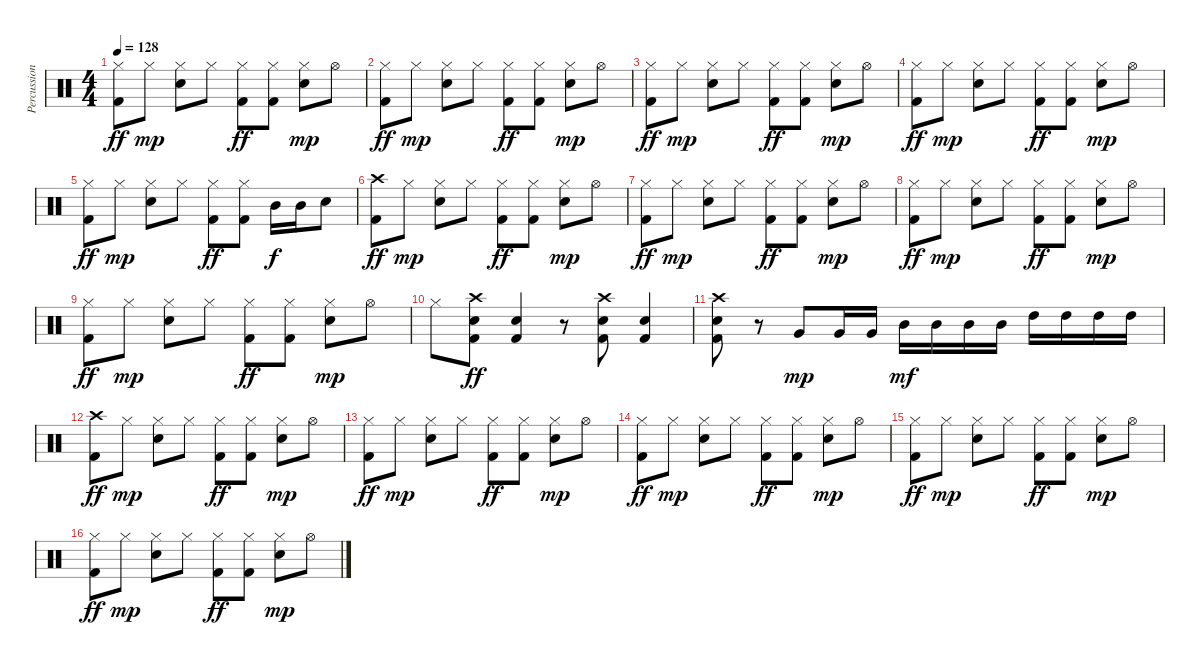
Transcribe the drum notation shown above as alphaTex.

\track ("Percussion" "Percussion") {instrument percussion}
\staff {score}
\articulation defaults
\ts (4 4)
\tempo 128
\clef neutral
\ks c
("Hi-Hat (closed)" "Kick (hit) 2").8{dy ff} "Hi-Hat (closed)".8{dy mp} ("Hi-Hat (closed)" "Electric Snare (hit)").8 "Hi-Hat (closed)".8 ("Hi-Hat (closed)" "Kick (hit) 2").8{dy ff} ("Hi-Hat (closed)" "Kick (hit) 2").8 ("Hi-Hat (closed)" "Electric Snare (hit)").8{dy mp} "Hi-Hat (open)".8 |
("Hi-Hat (closed)" "Kick (hit) 2").8{dy ff} "Hi-Hat (closed)".8{dy mp} ("Hi-Hat (closed)" "Electric Snare (hit)").8 "Hi-Hat (closed)".8 ("Hi-Hat (closed)" "Kick (hit) 2").8{dy ff} ("Hi-Hat (closed)" "Kick (hit) 2").8 ("Hi-Hat (closed)" "Electric Snare (hit)").8{dy mp} "Hi-Hat (open)".8 |
("Hi-Hat (closed)" "Kick (hit) 2").8{dy ff} "Hi-Hat (closed)".8{dy mp} ("Hi-Hat (closed)" "Electric Snare (hit)").8 "Hi-Hat (closed)".8 ("Hi-Hat (closed)" "Kick (hit) 2").8{dy ff} ("Hi-Hat (closed)" "Kick (hit) 2").8 ("Hi-Hat (closed)" "Electric Snare (hit)").8{dy mp} "Hi-Hat (open)".8 |
("Hi-Hat (closed)" "Kick (hit) 2").8{dy ff} "Hi-Hat (closed)".8{dy mp} ("Hi-Hat (closed)" "Electric Snare (hit)").8 "Hi-Hat (closed)".8 ("Hi-Hat (closed)" "Kick (hit) 2").8{dy ff} ("Hi-Hat (closed)" "Kick (hit) 2").8 ("Hi-Hat (closed)" "Electric Snare (hit)").8{dy mp} "Hi-Hat (open)".8 |
("Hi-Hat (closed)" "Kick (hit) 2").8{dy ff} "Hi-Hat (closed)".8{dy mp} ("Hi-Hat (closed)" "Electric Snare (hit)").8 "Hi-Hat (closed)".8 ("Hi-Hat (closed)" "Kick (hit) 2").8{dy ff} ("Hi-Hat (closed)" "Kick (hit) 2").8 "Mid Tom (hit)".16{dy f} "Mid Tom (hit)".16 "Electric Snare (hit)".8 |
("Crash high (hit)" "Kick (hit) 2").8{dy ff} "Hi-Hat (closed)".8{dy mp} ("Hi-Hat (closed)" "Electric Snare (hit)").8 "Hi-Hat (closed)".8 ("Hi-Hat (closed)" "Kick (hit) 2").8{dy ff} ("Hi-Hat (closed)" "Kick (hit) 2").8 ("Hi-Hat (closed)" "Electric Snare (hit)").8{dy mp} "Hi-Hat (open)".8 |
("Hi-Hat (closed)" "Kick (hit) 2").8{dy ff} "Hi-Hat (closed)".8{dy mp} ("Hi-Hat (closed)" "Electric Snare (hit)").8 "Hi-Hat (closed)".8 ("Hi-Hat (closed)" "Kick (hit) 2").8{dy ff} ("Hi-Hat (closed)" "Kick (hit) 2").8 ("Hi-Hat (closed)" "Electric Snare (hit)").8{dy mp} "Hi-Hat (open)".8 |
("Hi-Hat (closed)" "Kick (hit) 2").8{dy ff} "Hi-Hat (closed)".8{dy mp} ("Hi-Hat (closed)" "Electric Snare (hit)").8 "Hi-Hat (closed)".8 ("Hi-Hat (closed)" "Kick (hit) 2").8{dy ff} ("Hi-Hat (closed)" "Kick (hit) 2").8 ("Hi-Hat (closed)" "Electric Snare (hit)").8{dy mp} "Hi-Hat (open)".8 |
("Hi-Hat (closed)" "Kick (hit) 2").8{dy ff} "Hi-Hat (closed)".8{dy mp} ("Hi-Hat (closed)" "Electric Snare (hit)").8 "Hi-Hat (closed)".8 ("Hi-Hat (closed)" "Kick (hit) 2").8{dy ff} ("Hi-Hat (closed)" "Kick (hit) 2").8 ("Hi-Hat (closed)" "Electric Snare (hit)").8{dy mp} "Hi-Hat (open)".8 |
"Hi-Hat (closed)".8 ("Crash high (hit)" "Electric Snare (hit)" "Kick (hit) 2").8{dy ff} ("Electric Snare (hit)" "Kick (hit) 2").4 r.8 ("Crash high (hit)" "Electric Snare (hit)" "Kick (hit) 2").8 ("Electric Snare (hit)" "Kick (hit) 2").4 |
("Crash high (hit)" "Electric Snare (hit)" "Kick (hit) 2").8 r.8 "Very Low Tom (hit)".8{dy mp} "Very Low Tom (hit)".16 "Very Low Tom (hit)".16 "Mid Tom (hit)".16{dy mf} "Mid Tom (hit)".16 "Mid Tom (hit)".16 "Mid Tom (hit)".16 "High Tom (hit)".16 "High Tom (hit)".16 "High Tom (hit)".16 "High Tom (hit)".16 |
("Crash high (hit)" "Kick (hit) 2").8{dy ff} "Hi-Hat (closed)".8{dy mp} ("Hi-Hat (closed)" "Electric Snare (hit)").8 "Hi-Hat (closed)".8 ("Hi-Hat (closed)" "Kick (hit) 2").8{dy ff} ("Hi-Hat (closed)" "Kick (hit) 2").8 ("Hi-Hat (closed)" "Electric Snare (hit)").8{dy mp} "Hi-Hat (open)".8 |
("Hi-Hat (closed)" "Kick (hit) 2").8{dy ff} "Hi-Hat (closed)".8{dy mp} ("Hi-Hat (closed)" "Electric Snare (hit)").8 "Hi-Hat (closed)".8 ("Hi-Hat (closed)" "Kick (hit) 2").8{dy ff} ("Hi-Hat (closed)" "Kick (hit) 2").8 ("Hi-Hat (closed)" "Electric Snare (hit)").8{dy mp} "Hi-Hat (open)".8 |
("Hi-Hat (closed)" "Kick (hit) 2").8{dy ff} "Hi-Hat (closed)".8{dy mp} ("Hi-Hat (closed)" "Electric Snare (hit)").8 "Hi-Hat (closed)".8 ("Hi-Hat (closed)" "Kick (hit) 2").8{dy ff} ("Hi-Hat (closed)" "Kick (hit) 2").8 ("Hi-Hat (closed)" "Electric Snare (hit)").8{dy mp} "Hi-Hat (open)".8 |
("Hi-Hat (closed)" "Kick (hit) 2").8{dy ff} "Hi-Hat (closed)".8{dy mp} ("Hi-Hat (closed)" "Electric Snare (hit)").8 "Hi-Hat (closed)".8 ("Hi-Hat (closed)" "Kick (hit) 2").8{dy ff} ("Hi-Hat (closed)" "Kick (hit) 2").8 ("Hi-Hat (closed)" "Electric Snare (hit)").8{dy mp} "Hi-Hat (open)".8 |
("Hi-Hat (closed)" "Kick (hit) 2").8{dy ff} "Hi-Hat (closed)".8{dy mp} ("Hi-Hat (closed)" "Electric Snare (hit)").8 "Hi-Hat (closed)".8 ("Hi-Hat (closed)" "Kick (hit) 2").8{dy ff} ("Hi-Hat (closed)" "Kick (hit) 2").8 ("Hi-Hat (closed)" "Electric Snare (hit)").8{dy mp} "Hi-Hat (open)".8
